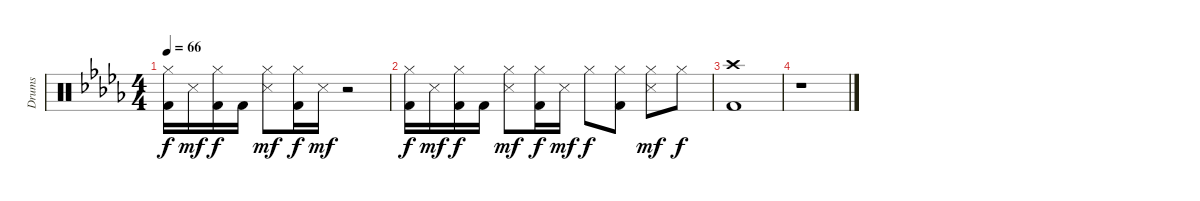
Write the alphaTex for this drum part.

\track ("Drums" "Drums") {instrument percussion}
\staff {score}
\articulation defaults
\ts (4 4)
\tempo 66
\clef neutral
\ks db
("Kick (hit) 2" "Hi-Hat (closed)").16{dy f} "Snare (side stick) 3".16{dy mf} ("Kick (hit) 2" "Hi-Hat (closed)").16{dy f} "Kick (hit) 2".16 ("Snare (side stick) 3" "Hi-Hat (closed)").8{dy mf} ("Kick (hit) 2" "Hi-Hat (closed)").16{dy f} "Snare (side stick) 3".16{dy mf} r.2 |
("Kick (hit) 2" "Hi-Hat (closed)").16{dy f} "Snare (side stick) 3".16{dy mf} ("Kick (hit) 2" "Hi-Hat (closed)").16{dy f} "Kick (hit) 2".16 ("Snare (side stick) 3" "Hi-Hat (closed)").8{dy mf} ("Kick (hit) 2" "Hi-Hat (closed)").16{dy f} "Snare (side stick) 3".16{dy mf} "Hi-Hat (closed)".8{dy f} ("Kick (hit) 2" "Hi-Hat (closed)").8 ("Snare (side stick) 3" "Hi-Hat (closed)").8{dy mf} "Hi-Hat (closed)".8{dy f} |
("Kick (hit) 2" "Crash high (hit)").1 |
r.1
